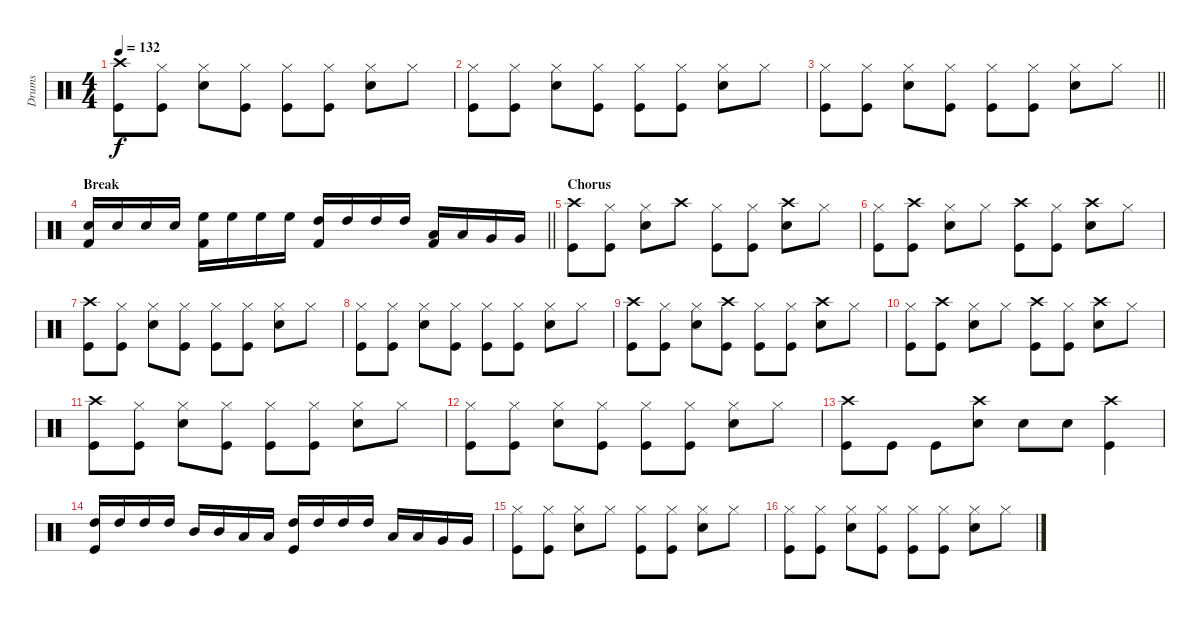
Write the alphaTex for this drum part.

\track ("Drums" "Drums") {instrument percussion}
\staff {score}
\articulation defaults
\ts (4 4)
\tempo 132
\clef neutral
\ks c
("Crash high (hit)" "Kick (hit)").8{dy f} ("Hi-Hat (closed)" "Kick (hit)").8 ("Snare (hit) 2" "Hi-Hat (closed)").8 ("Kick (hit)" "Hi-Hat (closed)").8 ("Kick (hit)" "Hi-Hat (closed)").8 ("Kick (hit)" "Hi-Hat (closed)").8 ("Snare (hit) 2" "Hi-Hat (closed)").8 "Hi-Hat (closed)".8 |
("Hi-Hat (closed)" "Kick (hit)").8 ("Hi-Hat (closed)" "Kick (hit)").8 ("Snare (hit) 2" "Hi-Hat (closed)").8 ("Kick (hit)" "Hi-Hat (closed)").8 ("Kick (hit)" "Hi-Hat (closed)").8 ("Kick (hit)" "Hi-Hat (closed)").8 ("Hi-Hat (closed)" "Snare (hit) 2").8 "Hi-Hat (closed)".8 |
\barLineRight lightlight
("Hi-Hat (closed)" "Kick (hit)").8 ("Hi-Hat (closed)" "Kick (hit)").8 ("Snare (hit) 2" "Hi-Hat (closed)").8 ("Kick (hit)" "Hi-Hat (closed)").8 ("Kick (hit)" "Hi-Hat (closed)").8 ("Kick (hit)" "Hi-Hat (closed)").8 ("Snare (hit) 2" "Hi-Hat (closed)").8 "Hi-Hat (closed)".8 |
\section ("" "Break")
\barLineRight lightlight
("Electric Snare (hit)" "Kick (hit) 2").16 "Electric Snare (hit)".16 "Electric Snare (hit)".16 "Electric Snare (hit)".16 ("High Floor Tom (hit)" "Kick (hit) 2").16 "High Floor Tom (hit)".16 "High Floor Tom (hit)".16 "High Floor Tom (hit)".16 ("High Tom (hit)" "Kick (hit) 2").16 "High Tom (hit)".16 "High Tom (hit)".16 "High Tom (hit)".16 ("Low Tom (hit)" "Kick (hit) 2").16 "Low Tom (hit)".16 "Very Low Tom (hit)".16 "Very Low Tom (hit)".16 |
\section ("" "Chorus")
("Crash high (hit)" "Kick (hit)").8 ("Hi-Hat (closed)" "Kick (hit)").8 ("Hi-Hat (closed)" "Snare (hit) 2").8 "Crash high (hit)".8 ("Hi-Hat (closed)" "Kick (hit)").8 ("Hi-Hat (closed)" "Kick (hit)").8 ("Crash high (hit)" "Snare (hit) 2").8 "Hi-Hat (closed)".8 |
("Hi-Hat (closed)" "Kick (hit)").8 ("Crash high (hit)" "Kick (hit)").8 ("Hi-Hat (closed)" "Snare (hit) 2").8 "Hi-Hat (closed)".8 ("Crash high (hit)" "Kick (hit)").8 ("Hi-Hat (closed)" "Kick (hit)").8 ("Crash high (hit)" "Snare (hit) 2").8 "Hi-Hat (closed)".8 |
("Kick (hit)" "Crash high (hit)").8 ("Kick (hit)" "Hi-Hat (closed)").8 ("Electric Snare (hit)" "Hi-Hat (closed)").8 ("Kick (hit)" "Hi-Hat (closed)").8 ("Kick (hit)" "Hi-Hat (closed)").8 ("Kick (hit)" "Hi-Hat (closed)").8 ("Electric Snare (hit)" "Hi-Hat (closed)").8 "Hi-Hat (closed)".8 |
("Kick (hit)" "Hi-Hat (closed)").8 ("Kick (hit)" "Hi-Hat (closed)").8 ("Snare (hit) 2" "Hi-Hat (closed)").8 ("Kick (hit)" "Hi-Hat (closed)").8 ("Kick (hit)" "Hi-Hat (closed)").8 ("Kick (hit)" "Hi-Hat (closed)").8 ("Snare (hit) 2" "Hi-Hat (closed)").8 "Hi-Hat (closed)".8 |
("Crash high (hit)" "Kick (hit)").8 ("Hi-Hat (closed)" "Kick (hit)").8 ("Hi-Hat (closed)" "Snare (hit) 2").8 ("Kick (hit)" "Crash high (hit)").8 ("Hi-Hat (closed)" "Kick (hit)").8 ("Hi-Hat (closed)" "Kick (hit)").8 ("Crash high (hit)" "Snare (hit) 2").8 "Hi-Hat (closed)".8 |
("Hi-Hat (closed)" "Kick (hit)").8 ("Crash high (hit)" "Kick (hit)").8 ("Hi-Hat (closed)" "Snare (hit) 2").8 "Hi-Hat (closed)".8 ("Crash high (hit)" "Kick (hit)").8 ("Hi-Hat (closed)" "Kick (hit)").8 ("Crash high (hit)" "Snare (hit) 2").8 "Hi-Hat (closed)".8 |
("Kick (hit)" "Crash high (hit)").8 ("Kick (hit)" "Hi-Hat (closed)").8 ("Electric Snare (hit)" "Hi-Hat (closed)").8 ("Kick (hit)" "Hi-Hat (closed)").8 ("Kick (hit)" "Hi-Hat (closed)").8 ("Kick (hit)" "Hi-Hat (closed)").8 ("Electric Snare (hit)" "Hi-Hat (closed)").8 "Hi-Hat (closed)".8 |
("Kick (hit)" "Hi-Hat (closed)").8 ("Kick (hit)" "Hi-Hat (closed)").8 ("Snare (hit) 2" "Hi-Hat (closed)").8 ("Kick (hit)" "Hi-Hat (closed)").8 ("Kick (hit)" "Hi-Hat (closed)").8 ("Kick (hit)" "Hi-Hat (closed)").8 ("Snare (hit) 2" "Hi-Hat (closed)").8 "Hi-Hat (closed)".8 |
("Crash high (hit)" "Kick (hit)").8 "Kick (hit)".8 "Kick (hit)".8 ("Snare (hit) 2" "Crash high (hit)").8 "Snare (hit) 2".8 "Snare (hit) 2".8 ("Crash high (hit)" "Kick (hit)").4 |
("Kick (hit)" "High Tom (hit)").16 "High Tom (hit)".16 "High Tom (hit)".16 "High Tom (hit)".16 "Mid Tom (hit)".16 "Mid Tom (hit)".16 "Low Tom (hit)".16 "Low Tom (hit)".16 ("Kick (hit)" "High Tom (hit)").16 "High Tom (hit)".16 "High Tom (hit)".16 "High Tom (hit)".16 "Low Tom (hit)".16 "Low Tom (hit)".16 "Very Low Tom (hit)".16 "Very Low Tom (hit)".16 |
("Hi-Hat (closed)" "Kick (hit)").8 ("Hi-Hat (closed)" "Kick (hit)").8 ("Hi-Hat (closed)" "Snare (hit) 2").8 "Hi-Hat (closed)".8 ("Hi-Hat (closed)" "Kick (hit)").8 ("Hi-Hat (closed)" "Kick (hit)").8 ("Hi-Hat (closed)" "Snare (hit) 2").8 "Hi-Hat (closed)".8 |
("Hi-Hat (closed)" "Kick (hit)").8 ("Hi-Hat (closed)" "Kick (hit)").8 ("Electric Snare (hit)" "Hi-Hat (closed)").8 ("Kick (hit)" "Hi-Hat (closed)").8 ("Hi-Hat (closed)" "Kick (hit)").8 ("Hi-Hat (closed)" "Kick (hit)").8 ("Hi-Hat (closed)" "Snare (hit) 2").8 "Hi-Hat (closed)".8
